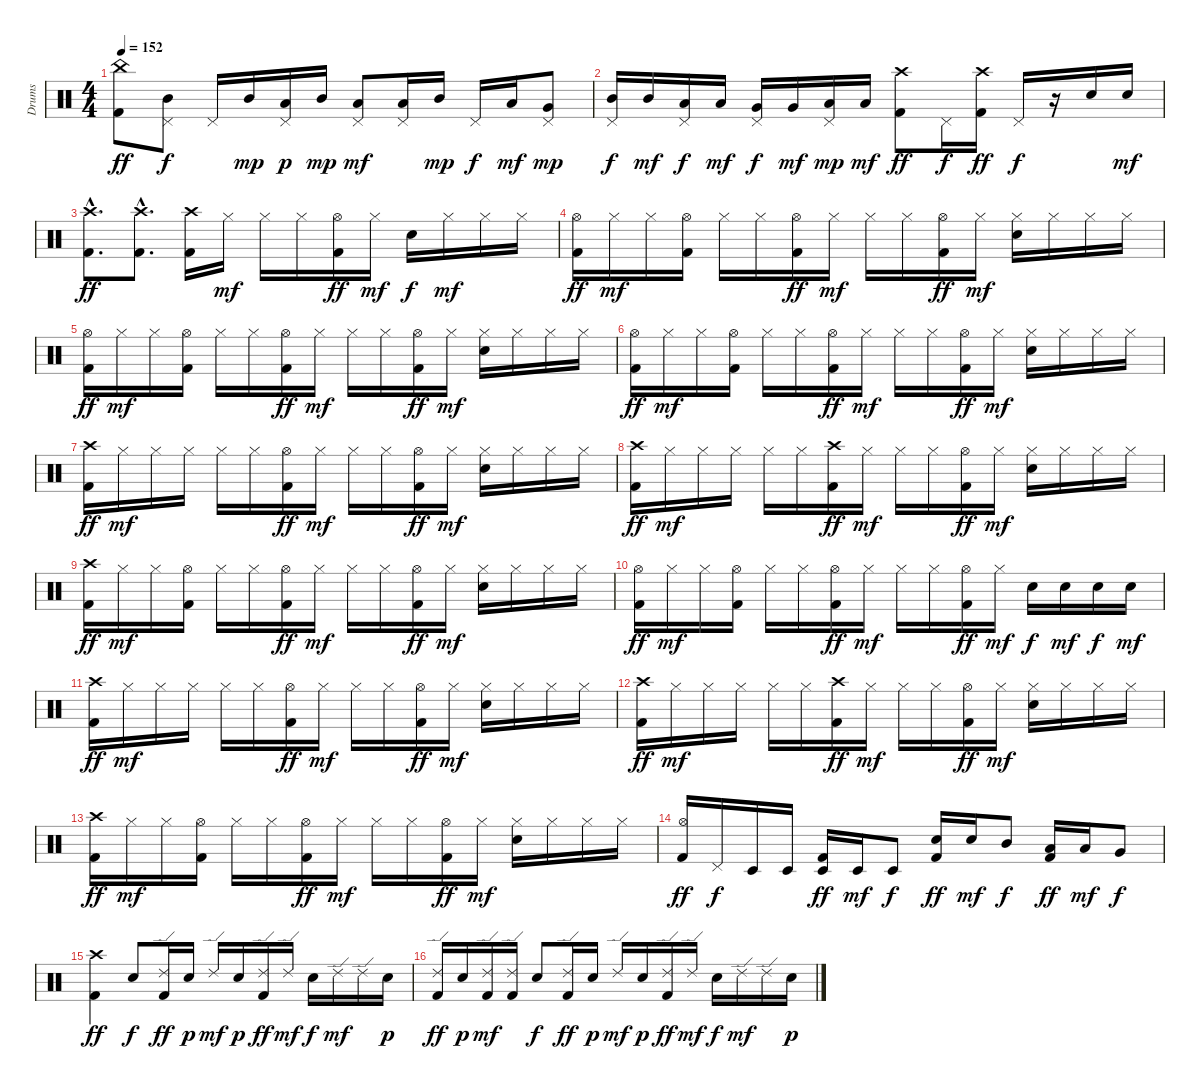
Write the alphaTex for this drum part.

\track ("Drums" "Drums") {instrument percussion}
\staff {score}
\articulation defaults
\ts (4 4)
\tempo 152
\clef neutral
\ks c
("China (hit)" "Kick (hit) 2").8{dy ff} ("Pedal Hi-Hat (hit)" "Mid Tom (hit)").8{dy f} "Pedal Hi-Hat (hit)".16 "Mid Tom (hit)".16{dy mp} ("Pedal Hi-Hat (hit)" "Low Tom (hit)").16{dy p} "Mid Tom (hit)".16{dy mp} ("Pedal Hi-Hat (hit)" "Low Tom (hit)").8{dy mf} ("Pedal Hi-Hat (hit)" "Low Tom (hit)").16 "Mid Tom (hit)".16{dy mp} "Pedal Hi-Hat (hit)".16{dy f} "Low Tom (hit)".16{dy mf} ("Pedal Hi-Hat (hit)" "Very Low Tom (hit)").8{dy mp} |
("Pedal Hi-Hat (hit)" "Mid Tom (hit)").16{dy f} "Mid Tom (hit)".16{dy mf} ("Pedal Hi-Hat (hit)" "Low Tom (hit)").16{dy f} "Low Tom (hit)".16{dy mf} ("Pedal Hi-Hat (hit)" "Very Low Tom (hit)").16{dy f} "Very Low Tom (hit)".16{dy mf} ("Pedal Hi-Hat (hit)" "Low Floor Tom (hit)").16{dy mp} "Low Floor Tom (hit)".16{dy mf} ("Crash high (hit)" "Kick (hit) 2").8{dy ff} "Pedal Hi-Hat (hit)".16{dy f} ("Crash high (hit)" "Kick (hit) 2").16{dy ff} "Pedal Hi-Hat (hit)".16{dy f} r.16 "Snare (hit) 2".16 "Snare (hit) 2".16{dy mf} |
("Crash high (hit)"{hac} "Kick (hit) 2"{hac}).8{d dy ff} ("Crash high (hit)"{hac} "Kick (hit) 2"{hac}).8{d} ("Crash high (hit)" "Kick (hit) 2").16 "Hi-Hat (closed)".16{dy mf} "Hi-Hat (closed)".16 "Hi-Hat (closed)".16 ("Hi-Hat (open)" "Kick (hit) 2").16{dy ff} "Hi-Hat (closed)".16{dy mf} "Snare (hit) 2".16{dy f} "Hi-Hat (closed)".16{dy mf} "Hi-Hat (closed)".16 "Hi-Hat (closed)".16 |
("Hi-Hat (open)" "Kick (hit) 2").16{dy ff} "Hi-Hat (closed)".16{dy mf} "Hi-Hat (closed)".16 ("Hi-Hat (open)" "Kick (hit) 2").16 "Hi-Hat (closed)".16 "Hi-Hat (closed)".16 ("Hi-Hat (open)" "Kick (hit) 2").16{dy ff} "Hi-Hat (closed)".16{dy mf} "Hi-Hat (closed)".16 "Hi-Hat (closed)".16 ("Hi-Hat (open)" "Kick (hit) 2").16{dy ff} "Hi-Hat (closed)".16{dy mf} ("Hi-Hat (closed)" "Snare (hit) 2").16 "Hi-Hat (closed)".16 "Hi-Hat (closed)".16 "Hi-Hat (closed)".16 |
("Hi-Hat (open)" "Kick (hit) 2").16{dy ff} "Hi-Hat (closed)".16{dy mf} "Hi-Hat (closed)".16 ("Hi-Hat (open)" "Kick (hit) 2").16 "Hi-Hat (closed)".16 "Hi-Hat (closed)".16 ("Hi-Hat (open)" "Kick (hit) 2").16{dy ff} "Hi-Hat (closed)".16{dy mf} "Hi-Hat (closed)".16 "Hi-Hat (closed)".16 ("Hi-Hat (open)" "Kick (hit) 2").16{dy ff} "Hi-Hat (closed)".16{dy mf} ("Hi-Hat (closed)" "Snare (hit) 2").16 "Hi-Hat (closed)".16 "Hi-Hat (closed)".16 "Hi-Hat (closed)".16 |
("Hi-Hat (open)" "Kick (hit) 2").16{dy ff} "Hi-Hat (closed)".16{dy mf} "Hi-Hat (closed)".16 ("Hi-Hat (open)" "Kick (hit) 2").16 "Hi-Hat (closed)".16 "Hi-Hat (closed)".16 ("Hi-Hat (open)" "Kick (hit) 2").16{dy ff} "Hi-Hat (closed)".16{dy mf} "Hi-Hat (closed)".16 "Hi-Hat (closed)".16 ("Hi-Hat (open)" "Kick (hit) 2").16{dy ff} "Hi-Hat (closed)".16{dy mf} ("Hi-Hat (closed)" "Snare (hit) 2").16 "Hi-Hat (closed)".16 "Hi-Hat (closed)".16 "Hi-Hat (closed)".16 |
("Crash high (hit)" "Kick (hit) 2").16{dy ff} "Hi-Hat (closed)".16{dy mf} "Hi-Hat (closed)".16 "Hi-Hat (closed)".16 "Hi-Hat (closed)".16 "Hi-Hat (closed)".16 ("Hi-Hat (open)" "Kick (hit) 2").16{dy ff} "Hi-Hat (closed)".16{dy mf} "Hi-Hat (closed)".16 "Hi-Hat (closed)".16 ("Hi-Hat (open)" "Kick (hit) 2").16{dy ff} "Hi-Hat (closed)".16{dy mf} ("Hi-Hat (closed)" "Snare (hit) 2").16 "Hi-Hat (closed)".16 "Hi-Hat (closed)".16 "Hi-Hat (closed)".16 |
("Crash high (hit)" "Kick (hit) 2").16{dy ff} "Hi-Hat (closed)".16{dy mf} "Hi-Hat (closed)".16 "Hi-Hat (closed)".16 "Hi-Hat (closed)".16 "Hi-Hat (closed)".16 ("Crash high (hit)" "Kick (hit) 2").16{dy ff} "Hi-Hat (closed)".16{dy mf} "Hi-Hat (closed)".16 "Hi-Hat (closed)".16 ("Hi-Hat (open)" "Kick (hit) 2").16{dy ff} "Hi-Hat (closed)".16{dy mf} ("Hi-Hat (closed)" "Snare (hit) 2").16 "Hi-Hat (closed)".16 "Hi-Hat (closed)".16 "Hi-Hat (closed)".16 |
("Crash high (hit)" "Kick (hit) 2").16{dy ff} "Hi-Hat (closed)".16{dy mf} "Hi-Hat (closed)".16 ("Hi-Hat (open)" "Kick (hit) 2").16 "Hi-Hat (closed)".16 "Hi-Hat (closed)".16 ("Hi-Hat (open)" "Kick (hit) 2").16{dy ff} "Hi-Hat (closed)".16{dy mf} "Hi-Hat (closed)".16 "Hi-Hat (closed)".16 ("Hi-Hat (open)" "Kick (hit) 2").16{dy ff} "Hi-Hat (closed)".16{dy mf} ("Hi-Hat (closed)" "Snare (hit) 2").16 "Hi-Hat (closed)".16 "Hi-Hat (closed)".16 "Hi-Hat (closed)".16 |
("Hi-Hat (open)" "Kick (hit) 2").16{dy ff} "Hi-Hat (closed)".16{dy mf} "Hi-Hat (closed)".16 ("Hi-Hat (open)" "Kick (hit) 2").16 "Hi-Hat (closed)".16 "Hi-Hat (closed)".16 ("Hi-Hat (open)" "Kick (hit) 2").16{dy ff} "Hi-Hat (closed)".16{dy mf} "Hi-Hat (closed)".16 "Hi-Hat (closed)".16 ("Hi-Hat (open)" "Kick (hit) 2").16{dy ff} "Hi-Hat (closed)".16{dy mf} "Snare (hit) 2".16{dy f} "Snare (hit) 2".16{dy mf} "Snare (hit) 2".16{dy f} "Snare (hit) 2".16{dy mf} |
("Crash high (hit)" "Kick (hit) 2").16{dy ff} "Hi-Hat (closed)".16{dy mf} "Hi-Hat (closed)".16 "Hi-Hat (closed)".16 "Hi-Hat (closed)".16 "Hi-Hat (closed)".16 ("Hi-Hat (open)" "Kick (hit) 2").16{dy ff} "Hi-Hat (closed)".16{dy mf} "Hi-Hat (closed)".16 "Hi-Hat (closed)".16 ("Hi-Hat (open)" "Kick (hit) 2").16{dy ff} "Hi-Hat (closed)".16{dy mf} ("Hi-Hat (closed)" "Snare (hit) 2").16 "Hi-Hat (closed)".16 "Hi-Hat (closed)".16 "Hi-Hat (closed)".16 |
("Crash high (hit)" "Kick (hit) 2").16{dy ff} "Hi-Hat (closed)".16{dy mf} "Hi-Hat (closed)".16 "Hi-Hat (closed)".16 "Hi-Hat (closed)".16 "Hi-Hat (closed)".16 ("Crash high (hit)" "Kick (hit) 2").16{dy ff} "Hi-Hat (closed)".16{dy mf} "Hi-Hat (closed)".16 "Hi-Hat (closed)".16 ("Hi-Hat (open)" "Kick (hit) 2").16{dy ff} "Hi-Hat (closed)".16{dy mf} ("Hi-Hat (closed)" "Snare (hit) 2").16 "Hi-Hat (closed)".16 "Hi-Hat (closed)".16 "Hi-Hat (closed)".16 |
("Crash high (hit)" "Kick (hit) 2").16{dy ff} "Hi-Hat (closed)".16{dy mf} "Hi-Hat (closed)".16 ("Hi-Hat (open)" "Kick (hit) 2").16 "Hi-Hat (closed)".16 "Hi-Hat (closed)".16 ("Hi-Hat (open)" "Kick (hit) 2").16{dy ff} "Hi-Hat (closed)".16{dy mf} "Hi-Hat (closed)".16 "Hi-Hat (closed)".16 ("Hi-Hat (open)" "Kick (hit) 2").16{dy ff} "Hi-Hat (closed)".16{dy mf} ("Hi-Hat (closed)" "Snare (hit) 2").16 "Hi-Hat (closed)".16 "Hi-Hat (closed)".16 "Hi-Hat (closed)".16 |
("Hi-Hat (open)" "Kick (hit) 2").16{dy ff} "Pedal Hi-Hat (hit)".16{dy f} "Timbale low (hit)".16 "Timbale low (hit)".16 ("Timbale low (hit)" "Kick (hit) 2").16{dy ff} "Timbale low (hit)".16{dy mf} "Timbale low (hit)".8{dy f} ("Snare (hit) 2" "Kick (hit) 2").16{dy ff} "Snare (hit) 2".16{dy mf} "Mid Tom (hit)".8{dy f} ("Low Tom (hit)" "Kick (hit) 2").16{dy ff} "Low Tom (hit)".16{dy mf} "Very Low Tom (hit)".8{dy f} |
("Crash high (hit)" "Kick (hit) 2").4{dy ff} "Snare (hit) 2".8{dy f} ("Ride (edge) 2" "Kick (hit) 2").16{dy ff} "Snare (hit) 2".16{dy p} "Ride (edge) 2".16{dy mf} "Snare (hit) 2".16{dy p} ("Ride (edge) 2" "Kick (hit) 2").16{dy ff} "Ride (edge) 2".16{dy mf} "Snare (hit) 2".16{dy f} "Ride (edge) 2".16{dy mf} "Ride (edge) 2".16 "Snare (hit) 2".16{dy p} |
("Ride (edge) 2" "Kick (hit) 2").16{dy ff} "Snare (hit) 2".16{dy p} ("Ride (edge) 2" "Kick (hit) 2").16{dy mf} ("Ride (edge) 2" "Kick (hit) 2").16 "Snare (hit) 2".8{dy f} ("Ride (edge) 2" "Kick (hit) 2").16{dy ff} "Snare (hit) 2".16{dy p} "Ride (edge) 2".16{dy mf} "Snare (hit) 2".16{dy p} ("Ride (edge) 2" "Kick (hit) 2").16{dy ff} "Ride (edge) 2".16{dy mf} "Snare (hit) 2".16{dy f} "Ride (edge) 2".16{dy mf} "Ride (edge) 2".16 "Snare (hit) 2".16{dy p}
